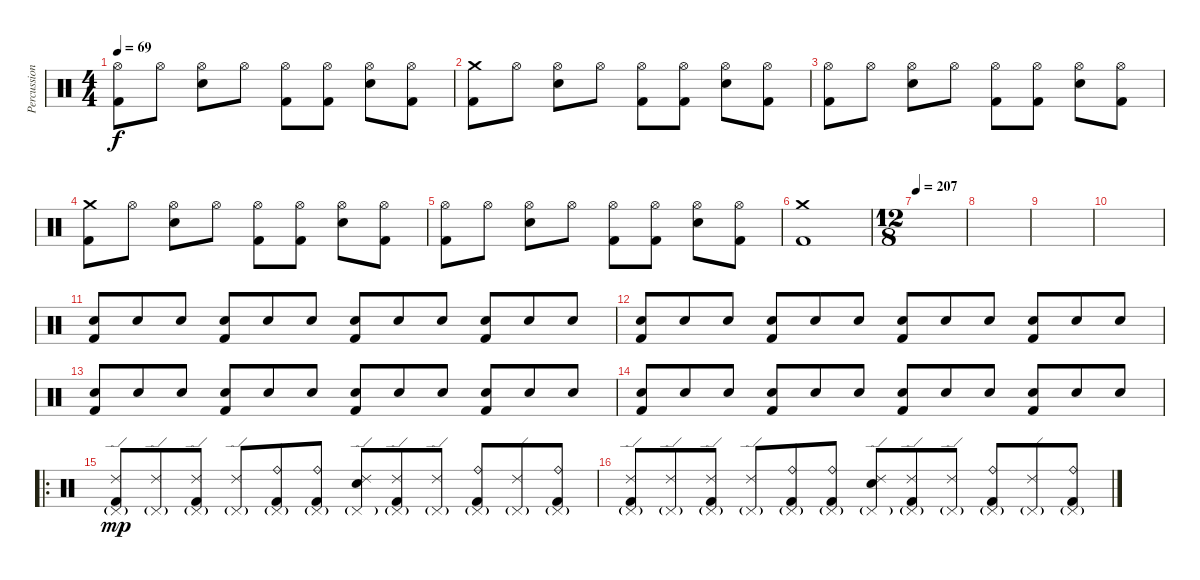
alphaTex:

\track ("Percussion" "Percussion") {instrument percussion}
\staff {score}
\articulation defaults
\ts (4 4)
\tempo 69
\clef neutral
\ks c
("Hi-Hat (open)" "Kick (hit) 2").8{dy f} "Hi-Hat (open)".8 ("Hi-Hat (open)" "Electric Snare (hit)").8 "Hi-Hat (open)".8 ("Hi-Hat (open)" "Kick (hit) 2").8 ("Hi-Hat (open)" "Kick (hit) 2").8 ("Hi-Hat (open)" "Electric Snare (hit)").8 ("Hi-Hat (open)" "Kick (hit) 2").8 |
("Crash medium (hit)" "Kick (hit) 2").8 "Hi-Hat (open)".8 ("Hi-Hat (open)" "Electric Snare (hit)").8 "Hi-Hat (open)".8 ("Hi-Hat (open)" "Kick (hit) 2").8 ("Hi-Hat (open)" "Kick (hit) 2").8 ("Hi-Hat (open)" "Electric Snare (hit)").8 ("Hi-Hat (open)" "Kick (hit) 2").8 |
("Hi-Hat (open)" "Kick (hit) 2").8 "Hi-Hat (open)".8 ("Hi-Hat (open)" "Electric Snare (hit)").8 "Hi-Hat (open)".8 ("Hi-Hat (open)" "Kick (hit) 2").8 ("Hi-Hat (open)" "Kick (hit) 2").8 ("Hi-Hat (open)" "Electric Snare (hit)").8 ("Hi-Hat (open)" "Kick (hit) 2").8 |
("Crash medium (hit)" "Kick (hit) 2").8 "Hi-Hat (open)".8 ("Hi-Hat (open)" "Electric Snare (hit)").8 "Hi-Hat (open)".8 ("Hi-Hat (open)" "Kick (hit) 2").8 ("Hi-Hat (open)" "Kick (hit) 2").8 ("Hi-Hat (open)" "Electric Snare (hit)").8 ("Hi-Hat (open)" "Kick (hit) 2").8 |
("Hi-Hat (open)" "Kick (hit) 2").8 "Hi-Hat (open)".8 ("Hi-Hat (open)" "Electric Snare (hit)").8 "Hi-Hat (open)".8 ("Hi-Hat (open)" "Kick (hit) 2").8 ("Hi-Hat (open)" "Kick (hit) 2").8 ("Hi-Hat (open)" "Electric Snare (hit)").8 ("Hi-Hat (open)" "Kick (hit) 2").8 |
("Crash medium (hit)" "Kick (hit) 2").1 |
\ts (12 8)
\tempo 207
|
|
|
|
("Electric Snare (hit)" "Kick (hit) 2").8 "Electric Snare (hit)".8 "Electric Snare (hit)".8 ("Electric Snare (hit)" "Kick (hit) 2").8 "Electric Snare (hit)".8 "Electric Snare (hit)".8 ("Electric Snare (hit)" "Kick (hit) 2").8 "Electric Snare (hit)".8 "Electric Snare (hit)".8 ("Electric Snare (hit)" "Kick (hit) 2").8 "Electric Snare (hit)".8 "Electric Snare (hit)".8 |
("Electric Snare (hit)" "Kick (hit) 2").8 "Electric Snare (hit)".8 "Electric Snare (hit)".8 ("Electric Snare (hit)" "Kick (hit) 2").8 "Electric Snare (hit)".8 "Electric Snare (hit)".8 ("Electric Snare (hit)" "Kick (hit) 2").8 "Electric Snare (hit)".8 "Electric Snare (hit)".8 ("Electric Snare (hit)" "Kick (hit) 2").8 "Electric Snare (hit)".8 "Electric Snare (hit)".8 |
("Electric Snare (hit)" "Kick (hit) 2").8 "Electric Snare (hit)".8 "Electric Snare (hit)".8 ("Electric Snare (hit)" "Kick (hit) 2").8 "Electric Snare (hit)".8 "Electric Snare (hit)".8 ("Electric Snare (hit)" "Kick (hit) 2").8 "Electric Snare (hit)".8 "Electric Snare (hit)".8 ("Electric Snare (hit)" "Kick (hit) 2").8 "Electric Snare (hit)".8 "Electric Snare (hit)".8 |
("Electric Snare (hit)" "Kick (hit) 2").8 "Electric Snare (hit)".8 "Electric Snare (hit)".8 ("Electric Snare (hit)" "Kick (hit) 2").8 "Electric Snare (hit)".8 "Electric Snare (hit)".8 ("Electric Snare (hit)" "Kick (hit) 2").8 "Electric Snare (hit)".8 "Electric Snare (hit)".8 ("Electric Snare (hit)" "Kick (hit) 2").8 "Electric Snare (hit)".8 "Electric Snare (hit)".8 |
\ro
("Ride (edge) 2" "Pedal Hi-Hat (hit)"{g} "Kick (hit) 2").8{dy mp} ("Ride (edge) 2" "Pedal Hi-Hat (hit)"{g}).8 ("Ride (edge) 2" "Pedal Hi-Hat (hit)"{g} "Kick (hit) 2").8 ("Ride (edge) 2" "Pedal Hi-Hat (hit)"{g}).8 ("Ride (bell)" "Pedal Hi-Hat (hit)"{g} "Kick (hit) 2").8 ("Ride (bell)" "Pedal Hi-Hat (hit)"{g} "Kick (hit) 2").8 ("Ride (edge) 2" "Pedal Hi-Hat (hit)"{g} "Electric Snare (hit)").8 ("Ride (edge) 2" "Pedal Hi-Hat (hit)"{g} "Kick (hit) 2").8 ("Ride (edge) 2" "Pedal Hi-Hat (hit)"{g}).8 ("Ride (bell)" "Pedal Hi-Hat (hit)"{g} "Kick (hit) 2").8 ("Ride (edge) 2" "Pedal Hi-Hat (hit)"{g}).8 ("Ride (bell)" "Pedal Hi-Hat (hit)"{g} "Kick (hit) 2").8 |
("Ride (edge) 2" "Pedal Hi-Hat (hit)"{g} "Kick (hit) 2").8 ("Ride (edge) 2" "Pedal Hi-Hat (hit)"{g}).8 ("Ride (edge) 2" "Pedal Hi-Hat (hit)"{g} "Kick (hit) 2").8 ("Ride (edge) 2" "Pedal Hi-Hat (hit)"{g}).8 ("Ride (bell)" "Pedal Hi-Hat (hit)"{g} "Kick (hit) 2").8 ("Ride (bell)" "Pedal Hi-Hat (hit)"{g} "Kick (hit) 2").8 ("Ride (edge) 2" "Pedal Hi-Hat (hit)"{g} "Electric Snare (hit)").8 ("Ride (edge) 2" "Pedal Hi-Hat (hit)"{g} "Kick (hit) 2").8 ("Ride (edge) 2" "Pedal Hi-Hat (hit)"{g}).8 ("Ride (bell)" "Pedal Hi-Hat (hit)"{g} "Kick (hit) 2").8 ("Ride (edge) 2" "Pedal Hi-Hat (hit)"{g}).8 ("Ride (bell)" "Pedal Hi-Hat (hit)"{g} "Kick (hit) 2").8
